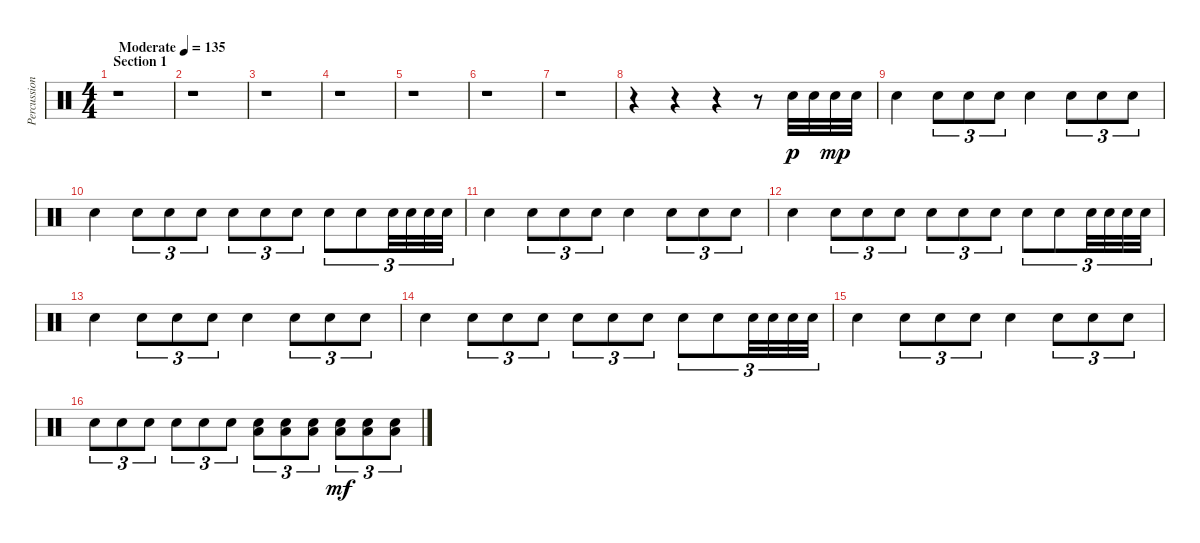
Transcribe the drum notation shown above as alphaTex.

\track ("Percussion" "Percussion") {instrument percussion}
\staff {score}
\articulation defaults
\ts (4 4)
\section ("" "Section 1")
\tempo (135 "Moderate")
\clef neutral
\ks c
r.1{dy p} |
r.1 |
r.1 |
r.1 |
r.1 |
r.1 |
r.1 |
r.4 r.4 r.4 r.8 "Electric Snare (hit)".32 "Electric Snare (hit)".32 "Electric Snare (hit)".32{dy mp} "Electric Snare (hit)".32 |
"Electric Snare (hit)".4 "Electric Snare (hit)".8{tu (3 2)} "Electric Snare (hit)".8{tu (3 2)} "Electric Snare (hit)".8{tu (3 2)} "Electric Snare (hit)".4 "Electric Snare (hit)".8{tu (3 2)} "Electric Snare (hit)".8{tu (3 2)} "Electric Snare (hit)".8{tu (3 2)} |
"Electric Snare (hit)".4 "Electric Snare (hit)".8{tu (3 2)} "Electric Snare (hit)".8{tu (3 2)} "Electric Snare (hit)".8{tu (3 2)} "Electric Snare (hit)".8{tu (3 2)} "Electric Snare (hit)".8{tu (3 2)} "Electric Snare (hit)".8{tu (3 2)} "Electric Snare (hit)".8{tu (3 2)} "Electric Snare (hit)".8{tu (3 2)} "Electric Snare (hit)".32{tu (3 2)} "Electric Snare (hit)".32{tu (3 2)} "Electric Snare (hit)".32{tu (3 2)} "Electric Snare (hit)".32{tu (3 2)} |
"Electric Snare (hit)".4 "Electric Snare (hit)".8{tu (3 2)} "Electric Snare (hit)".8{tu (3 2)} "Electric Snare (hit)".8{tu (3 2)} "Electric Snare (hit)".4 "Electric Snare (hit)".8{tu (3 2)} "Electric Snare (hit)".8{tu (3 2)} "Electric Snare (hit)".8{tu (3 2)} |
"Electric Snare (hit)".4 "Electric Snare (hit)".8{tu (3 2)} "Electric Snare (hit)".8{tu (3 2)} "Electric Snare (hit)".8{tu (3 2)} "Electric Snare (hit)".8{tu (3 2)} "Electric Snare (hit)".8{tu (3 2)} "Electric Snare (hit)".8{tu (3 2)} "Electric Snare (hit)".8{tu (3 2)} "Electric Snare (hit)".8{tu (3 2)} "Electric Snare (hit)".32{tu (3 2)} "Electric Snare (hit)".32{tu (3 2)} "Electric Snare (hit)".32{tu (3 2)} "Electric Snare (hit)".32{tu (3 2)} |
"Electric Snare (hit)".4 "Electric Snare (hit)".8{tu (3 2)} "Electric Snare (hit)".8{tu (3 2)} "Electric Snare (hit)".8{tu (3 2)} "Electric Snare (hit)".4 "Electric Snare (hit)".8{tu (3 2)} "Electric Snare (hit)".8{tu (3 2)} "Electric Snare (hit)".8{tu (3 2)} |
"Electric Snare (hit)".4 "Electric Snare (hit)".8{tu (3 2)} "Electric Snare (hit)".8{tu (3 2)} "Electric Snare (hit)".8{tu (3 2)} "Electric Snare (hit)".8{tu (3 2)} "Electric Snare (hit)".8{tu (3 2)} "Electric Snare (hit)".8{tu (3 2)} "Electric Snare (hit)".8{tu (3 2)} "Electric Snare (hit)".8{tu (3 2)} "Electric Snare (hit)".32{tu (3 2)} "Electric Snare (hit)".32{tu (3 2)} "Electric Snare (hit)".32{tu (3 2)} "Electric Snare (hit)".32{tu (3 2)} |
"Electric Snare (hit)".4 "Electric Snare (hit)".8{tu (3 2)} "Electric Snare (hit)".8{tu (3 2)} "Electric Snare (hit)".8{tu (3 2)} "Electric Snare (hit)".4 "Electric Snare (hit)".8{tu (3 2)} "Electric Snare (hit)".8{tu (3 2)} "Electric Snare (hit)".8{tu (3 2)} |
"Electric Snare (hit)".8{tu (3 2)} "Electric Snare (hit)".8{tu (3 2)} "Electric Snare (hit)".8{tu (3 2)} "Electric Snare (hit)".8{tu (3 2)} "Electric Snare (hit)".8{tu (3 2)} "Electric Snare (hit)".8{tu (3 2)} ("Electric Snare (hit)" "Low Floor Tom (hit)").8{tu (3 2)} ("Electric Snare (hit)" "Low Floor Tom (hit)").8{tu (3 2)} ("Electric Snare (hit)" "Low Floor Tom (hit)").8{tu (3 2)} ("Electric Snare (hit)" "Low Floor Tom (hit)").8{tu (3 2) dy mf} ("Electric Snare (hit)" "Low Floor Tom (hit)").8{tu (3 2)} ("Electric Snare (hit)" "Low Floor Tom (hit)").8{tu (3 2)}
